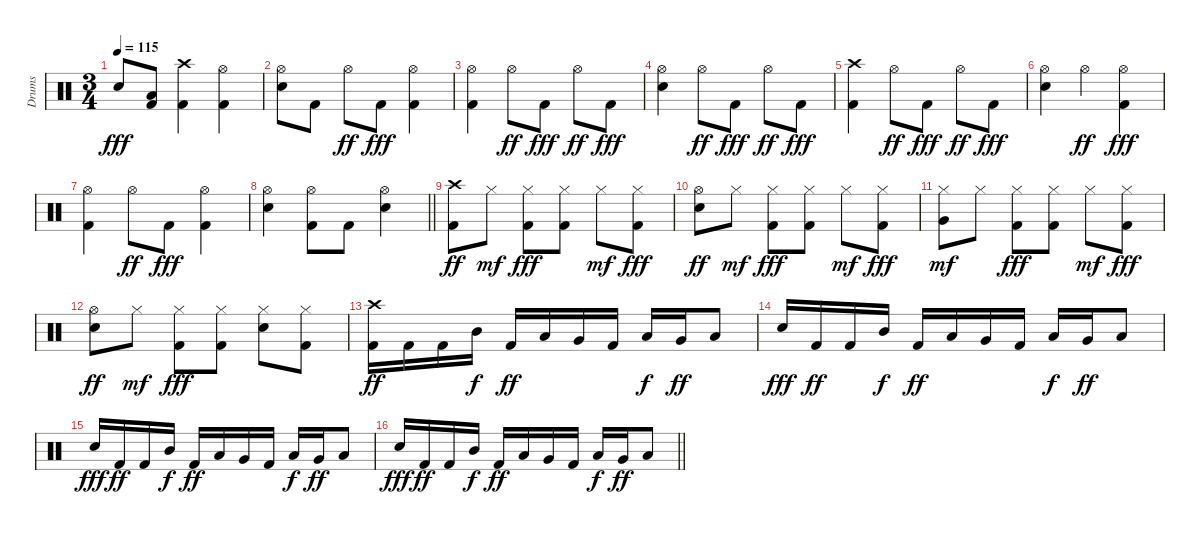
\track ("Drums" "Drums") {instrument percussion}
\staff {score}
\articulation defaults
\ts (3 4)
\tempo 115
\clef neutral
\ks c "Snare (hit) 2".8{dy fff}
("Low Tom (hit)" "Kick (hit) 2").8 ("Crash high (hit)" "Kick (hit) 2").4 ("Hi-Hat (open)" "Kick (hit) 2").4 |
("Hi-Hat (open)" "Snare (hit) 2").8 "Kick (hit) 2".8 "Hi-Hat (open)".8{dy ff} "Kick (hit) 2".8{dy fff} ("Hi-Hat (open)" "Kick (hit) 2").4 |
("Hi-Hat (open)" "Kick (hit) 2").4 "Hi-Hat (open)".8{dy ff} "Kick (hit) 2".8{dy fff} "Hi-Hat (open)".8{dy ff} "Kick (hit) 2".8{dy fff} |
("Hi-Hat (open)" "Snare (hit) 2").4 "Hi-Hat (open)".8{dy ff} "Kick (hit) 2".8{dy fff} "Hi-Hat (open)".8{dy ff} "Kick (hit) 2".8{dy fff} |
("Crash high (hit)" "Kick (hit) 2").4 "Hi-Hat (open)".8{dy ff} "Kick (hit) 2".8{dy fff} "Hi-Hat (open)".8{dy ff} "Kick (hit) 2".8{dy fff} |
("Hi-Hat (open)" "Snare (hit) 2").4 "Hi-Hat (open)".4{dy ff} ("Hi-Hat (open)" "Kick (hit) 2").4{dy fff} |
("Hi-Hat (open)" "Kick (hit) 2").4 "Hi-Hat (open)".8{dy ff} "Kick (hit) 2".8{dy fff} ("Hi-Hat (open)" "Kick (hit) 2").4 |
\barLineRight lightlight
("Hi-Hat (open)" "Snare (hit) 2").4 ("Hi-Hat (open)" "Kick (hit) 2").8 "Kick (hit) 2".8 ("Hi-Hat (open)" "Snare (hit) 2").4 |
\section ("" "")
("Crash high (hit)" "Kick (hit) 2").8{dy ff} "Hi-Hat (closed)".8{dy mf} ("Hi-Hat (closed)" "Kick (hit) 2").8{dy fff} ("Hi-Hat (closed)" "Kick (hit) 2").8 "Hi-Hat (closed)".8{dy mf} ("Hi-Hat (closed)" "Kick (hit) 2").8{dy fff} |
("Hi-Hat (open)" "Snare (hit) 2").8{dy ff} "Hi-Hat (closed)".8{dy mf} ("Hi-Hat (closed)" "Kick (hit) 2").8{dy fff} ("Hi-Hat (closed)" "Kick (hit) 2").8 "Hi-Hat (closed)".8{dy mf} ("Hi-Hat (closed)" "Kick (hit) 2").8{dy fff} |
("Hi-Hat (closed)" "Very Low Tom (hit)").8{dy mf} "Hi-Hat (closed)".8 ("Hi-Hat (closed)" "Kick (hit) 2").8{dy fff} ("Hi-Hat (closed)" "Kick (hit) 2").8 "Hi-Hat (closed)".8{dy mf} ("Hi-Hat (closed)" "Kick (hit) 2").8{dy fff} |
("Hi-Hat (open)" "Snare (hit) 2").8{dy ff} "Hi-Hat (closed)".8{dy mf} ("Hi-Hat (closed)" "Kick (hit) 2").8{dy fff} ("Hi-Hat (closed)" "Kick (hit) 2").8 ("Hi-Hat (closed)" "Snare (hit) 2").8 ("Hi-Hat (closed)" "Kick (hit) 2").8 |
("Crash high (hit)" "Kick (hit) 2").16{dy ff} "Kick (hit) 2".16 "Kick (hit) 2".16 "Mid Tom (hit)".16{dy f} "Kick (hit) 2".16{dy ff} "Low Tom (hit)".16 "Very Low Tom (hit)".16 "Kick (hit) 2".16 "Low Tom (hit)".16{dy f} "Very Low Tom (hit)".16{dy ff} "Low Floor Tom (hit)".8 |
"Snare (hit) 2".16{dy fff} "Kick (hit) 2".16{dy ff} "Kick (hit) 2".16 "Mid Tom (hit)".16{dy f} "Kick (hit) 2".16{dy ff} "Low Tom (hit)".16 "Very Low Tom (hit)".16 "Kick (hit) 2".16 "Low Tom (hit)".16{dy f} "Very Low Tom (hit)".16{dy ff} "Low Floor Tom (hit)".8 |
"Snare (hit) 2".16{dy fff} "Kick (hit) 2".16{dy ff} "Kick (hit) 2".16 "Mid Tom (hit)".16{dy f} "Kick (hit) 2".16{dy ff} "Low Tom (hit)".16 "Very Low Tom (hit)".16 "Kick (hit) 2".16 "Low Tom (hit)".16{dy f} "Very Low Tom (hit)".16{dy ff} "Low Floor Tom (hit)".8 |
\barLineRight lightlight "Snare (hit) 2".16{dy fff} "Kick (hit) 2".16{dy ff} "Kick (hit) 2".16 "Mid Tom (hit)".16{dy f} "Kick (hit) 2".16{dy ff} "Low Tom (hit)".16 "Very Low Tom (hit)".16 "Kick (hit) 2".16 "Low Tom (hit)".16{dy f} "Very Low Tom (hit)".16{dy ff} "Low Floor Tom (hit)".8
